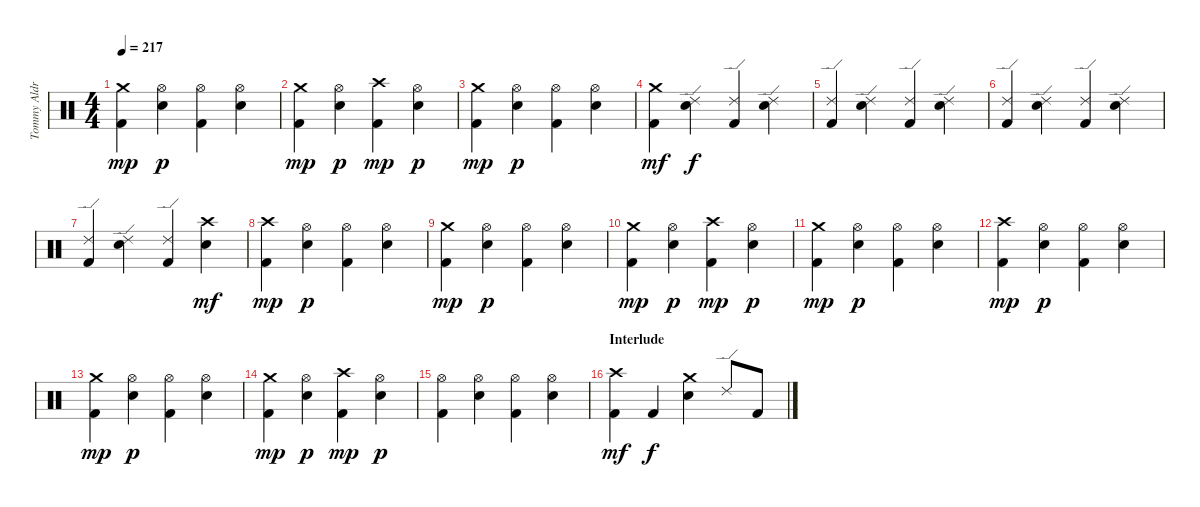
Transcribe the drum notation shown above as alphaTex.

\track ("Tommy Aldridge" "Tommy Aldr") {instrument percussion}
\staff {score}
\articulation defaults
\ts (4 4)
\tempo 217
\clef neutral
\ks c
("Kick (hit) 2" "Crash medium (hit)").4{dy mp} ("Hi-Hat (open)" "Snare (hit) 2").4{dy p} ("Kick (hit) 2" "Hi-Hat (open)").4 ("Hi-Hat (open)" "Snare (hit) 2").4 |
("Kick (hit) 2" "Crash medium (hit)").4{dy mp} ("Hi-Hat (open)" "Snare (hit) 2").4{dy p} ("Kick (hit) 2" "Crash high (hit)").4{dy mp} ("Hi-Hat (open)" "Snare (hit) 2").4{dy p} |
("Kick (hit) 2" "Crash medium (hit)").4{dy mp} ("Hi-Hat (open)" "Snare (hit) 2").4{dy p} ("Kick (hit) 2" "Hi-Hat (open)").4 ("Hi-Hat (open)" "Snare (hit) 2").4 |
("Kick (hit) 2" "Crash medium (hit)").4{dy mf} ("Ride (edge) 2" "Snare (hit) 2").4{dy f} ("Kick (hit) 2" "Ride (edge) 2").4 ("Ride (edge) 2" "Snare (hit) 2").4 |
("Kick (hit) 2" "Ride (edge) 2").4 ("Ride (edge) 2" "Snare (hit) 2").4 ("Kick (hit) 2" "Ride (edge) 2").4 ("Ride (edge) 2" "Snare (hit) 2").4 |
("Kick (hit) 2" "Ride (edge) 2").4 ("Ride (edge) 2" "Snare (hit) 2").4 ("Kick (hit) 2" "Ride (edge) 2").4 ("Ride (edge) 2" "Snare (hit) 2").4 |
("Kick (hit) 2" "Ride (edge) 2").4 ("Ride (edge) 2" "Snare (hit) 2").4 ("Kick (hit) 2" "Ride (edge) 2").4 ("Crash high (hit)" "Snare (hit) 2").4{dy mf} |
("Kick (hit) 2" "Crash high (hit)").4{dy mp} ("Hi-Hat (open)" "Snare (hit) 2").4{dy p} ("Kick (hit) 2" "Hi-Hat (open)").4 ("Hi-Hat (open)" "Snare (hit) 2").4 |
("Kick (hit) 2" "Crash medium (hit)").4{dy mp} ("Hi-Hat (open)" "Snare (hit) 2").4{dy p} ("Kick (hit) 2" "Hi-Hat (open)").4 ("Hi-Hat (open)" "Snare (hit) 2").4 |
("Kick (hit) 2" "Crash medium (hit)").4{dy mp} ("Hi-Hat (open)" "Snare (hit) 2").4{dy p} ("Kick (hit) 2" "Crash high (hit)").4{dy mp} ("Hi-Hat (open)" "Snare (hit) 2").4{dy p} |
("Kick (hit) 2" "Crash medium (hit)").4{dy mp} ("Hi-Hat (open)" "Snare (hit) 2").4{dy p} ("Kick (hit) 2" "Hi-Hat (open)").4 ("Hi-Hat (open)" "Snare (hit) 2").4 |
("Kick (hit) 2" "Crash high (hit)").4{dy mp} ("Hi-Hat (open)" "Snare (hit) 2").4{dy p} ("Kick (hit) 2" "Hi-Hat (open)").4 ("Hi-Hat (open)" "Snare (hit) 2").4 |
("Kick (hit) 2" "Crash medium (hit)").4{dy mp} ("Hi-Hat (open)" "Snare (hit) 2").4{dy p} ("Kick (hit) 2" "Hi-Hat (open)").4 ("Hi-Hat (open)" "Snare (hit) 2").4 |
("Kick (hit) 2" "Crash medium (hit)").4{dy mp} ("Hi-Hat (open)" "Snare (hit) 2").4{dy p} ("Kick (hit) 2" "Crash high (hit)").4{dy mp} ("Hi-Hat (open)" "Snare (hit) 2").4{dy p} |
("Kick (hit) 2" "Hi-Hat (open)").4 ("Hi-Hat (open)" "Snare (hit) 2").4 ("Kick (hit) 2" "Hi-Hat (open)").4 ("Hi-Hat (open)" "Snare (hit) 2").4 |
\section ("" "Interlude")
("Kick (hit) 2" "Crash high (hit)").4{dy mf} "Kick (hit) 2".4{dy f} ("Crash medium (hit)" "Snare (hit) 2").4 "Ride (edge) 2".8 "Kick (hit) 2".8
